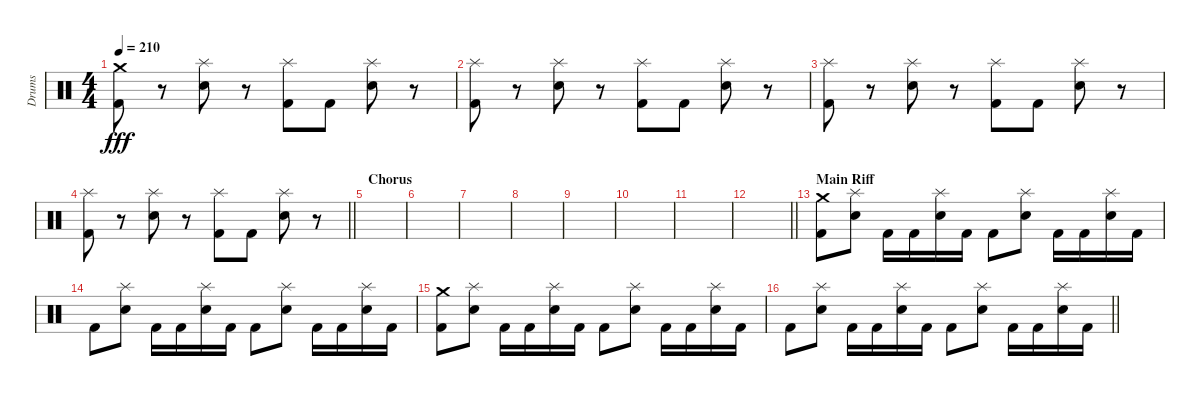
\track ("Drums" "Drums") {instrument percussion}
\staff {score}
\articulation defaults
\ts (4 4)
\tempo 210
\clef neutral
\ks c
("Crash medium (hit)" "Kick (hit) 2").8{dy fff} r.8 ("Splash (hit)" "Electric Snare (hit)").8 r.8 ("Splash (hit)" "Kick (hit) 2").8 "Kick (hit) 2".8 ("Splash (hit)" "Electric Snare (hit)").8 r.8 |
("Splash (hit)" "Kick (hit) 2").8 r.8 ("Splash (hit)" "Electric Snare (hit)").8 r.8 ("Splash (hit)" "Kick (hit) 2").8 "Kick (hit) 2".8 ("Splash (hit)" "Electric Snare (hit)").8 r.8 |
("Splash (hit)" "Kick (hit) 2").8 r.8 ("Splash (hit)" "Electric Snare (hit)").8 r.8 ("Splash (hit)" "Kick (hit) 2").8 "Kick (hit) 2".8 ("Splash (hit)" "Electric Snare (hit)").8 r.8 |
\barLineRight lightlight
("Splash (hit)" "Kick (hit) 2").8 r.8 ("Splash (hit)" "Electric Snare (hit)").8 r.8 ("Splash (hit)" "Kick (hit) 2").8 "Kick (hit) 2".8 ("Splash (hit)" "Electric Snare (hit)").8 r.8 |
\section ("" "Chorus")
|
|
|
|
|
|
|
\barLineRight lightlight
|
\section ("" "Main Riff")
("Crash medium (hit)" "Kick (hit) 2").8 ("Splash (hit)" "Electric Snare (hit)").8 "Kick (hit) 2".16 "Kick (hit) 2".16 ("Splash (hit)" "Electric Snare (hit)").16 "Kick (hit) 2".16 "Kick (hit) 2".8 ("Splash (hit)" "Electric Snare (hit)").8 "Kick (hit) 2".16 "Kick (hit) 2".16 ("Splash (hit)" "Electric Snare (hit)").16 "Kick (hit) 2".16 |
"Kick (hit) 2".8 ("Splash (hit)" "Electric Snare (hit)").8 "Kick (hit) 2".16 "Kick (hit) 2".16 ("Splash (hit)" "Electric Snare (hit)").16 "Kick (hit) 2".16 "Kick (hit) 2".8 ("Splash (hit)" "Electric Snare (hit)").8 "Kick (hit) 2".16 "Kick (hit) 2".16 ("Splash (hit)" "Electric Snare (hit)").16 "Kick (hit) 2".16 |
("Crash medium (hit)" "Kick (hit) 2").8 ("Splash (hit)" "Electric Snare (hit)").8 "Kick (hit) 2".16 "Kick (hit) 2".16 ("Splash (hit)" "Electric Snare (hit)").16 "Kick (hit) 2".16 "Kick (hit) 2".8 ("Splash (hit)" "Electric Snare (hit)").8 "Kick (hit) 2".16 "Kick (hit) 2".16 ("Splash (hit)" "Electric Snare (hit)").16 "Kick (hit) 2".16 |
\barLineRight lightlight "Kick (hit) 2".8
("Splash (hit)" "Electric Snare (hit)").8 "Kick (hit) 2".16 "Kick (hit) 2".16 ("Splash (hit)" "Electric Snare (hit)").16 "Kick (hit) 2".16 "Kick (hit) 2".8 ("Splash (hit)" "Electric Snare (hit)").8 "Kick (hit) 2".16 "Kick (hit) 2".16 ("Splash (hit)" "Electric Snare (hit)").16 "Kick (hit) 2".16
